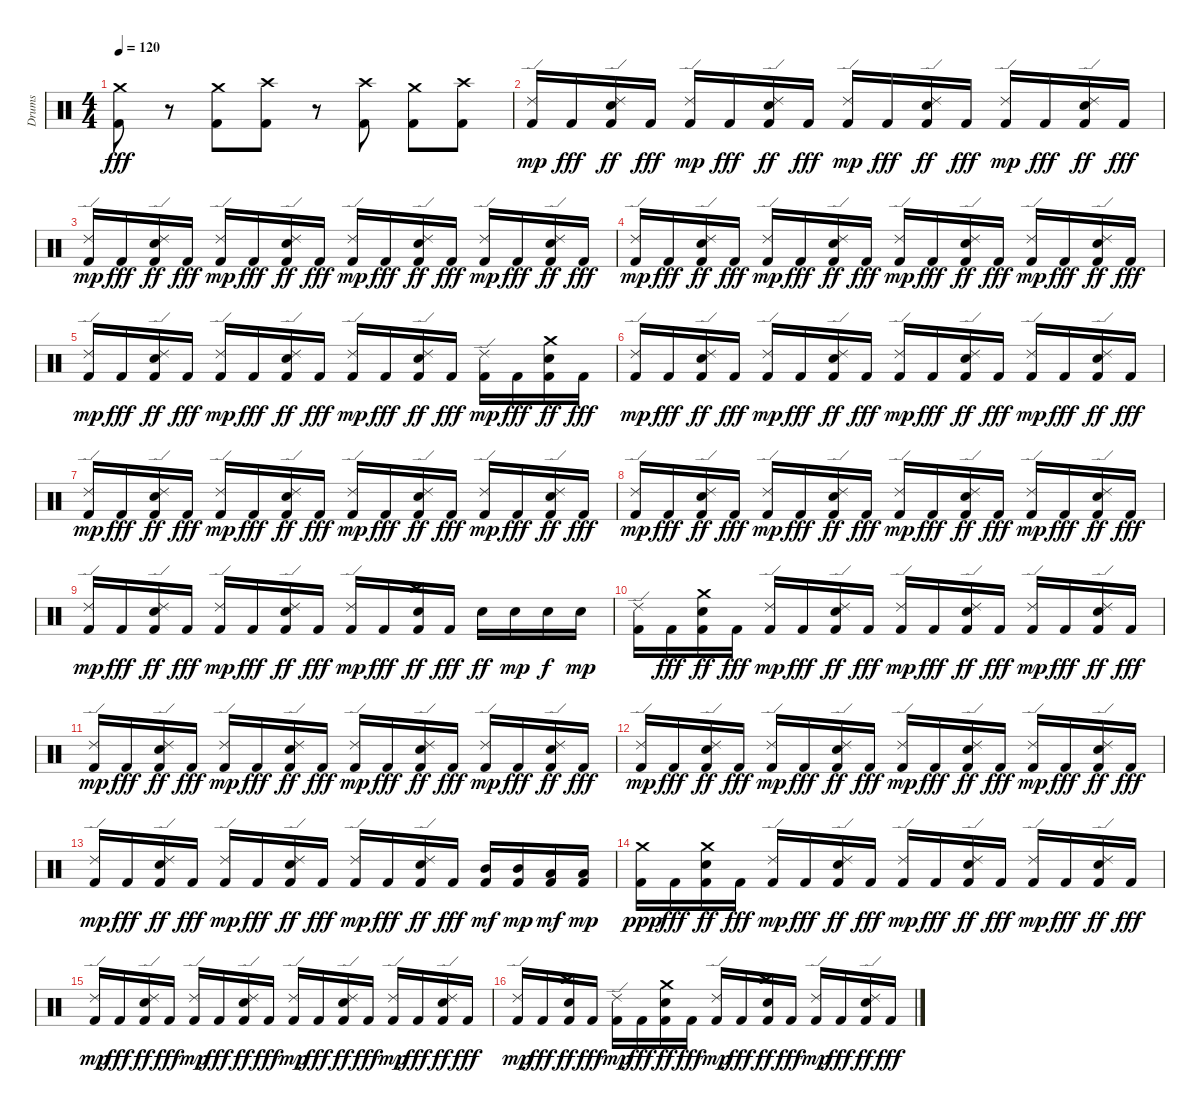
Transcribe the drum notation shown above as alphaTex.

\track ("Drums" "Drums") {instrument percussion}
\staff {score}
\articulation defaults
\ts (4 4)
\tempo 120
\clef neutral
\ks c
("Crash medium (hit)" "Kick (hit) 2").8{dy fff} r.8 ("Crash medium (hit)" "Kick (hit) 2").8 ("Crash high (hit)" "Kick (hit) 2").8 r.8 ("Crash high (hit)" "Kick (hit) 2").8 ("Crash medium (hit)" "Kick (hit) 2").8 ("Crash high (hit)" "Kick (hit) 2").8 |
("Kick (hit) 2" "Ride (edge) 2").16{dy mp} "Kick (hit) 2".16{dy fff} ("Kick (hit) 2" "Ride (edge) 2" "Snare (hit) 2").16{dy ff} "Kick (hit) 2".16{dy fff} ("Kick (hit) 2" "Ride (edge) 2").16{dy mp} "Kick (hit) 2".16{dy fff} ("Kick (hit) 2" "Ride (edge) 2" "Snare (hit) 2").16{dy ff} "Kick (hit) 2".16{dy fff} ("Kick (hit) 2" "Ride (edge) 2").16{dy mp} "Kick (hit) 2".16{dy fff} ("Kick (hit) 2" "Ride (edge) 2" "Snare (hit) 2").16{dy ff} "Kick (hit) 2".16{dy fff} ("Kick (hit) 2" "Ride (edge) 2").16{dy mp} "Kick (hit) 2".16{dy fff} ("Kick (hit) 2" "Ride (edge) 2" "Snare (hit) 2").16{dy ff} "Kick (hit) 2".16{dy fff} |
("Kick (hit) 2" "Ride (edge) 2").16{dy mp} "Kick (hit) 2".16{dy fff} ("Kick (hit) 2" "Ride (edge) 2" "Snare (hit) 2").16{dy ff} "Kick (hit) 2".16{dy fff} ("Kick (hit) 2" "Ride (edge) 2").16{dy mp} "Kick (hit) 2".16{dy fff} ("Kick (hit) 2" "Ride (edge) 2" "Snare (hit) 2").16{dy ff} "Kick (hit) 2".16{dy fff} ("Kick (hit) 2" "Ride (edge) 2").16{dy mp} "Kick (hit) 2".16{dy fff} ("Kick (hit) 2" "Ride (edge) 2" "Snare (hit) 2").16{dy ff} "Kick (hit) 2".16{dy fff} ("Kick (hit) 2" "Ride (edge) 2").16{dy mp} "Kick (hit) 2".16{dy fff} ("Kick (hit) 2" "Ride (edge) 2" "Snare (hit) 2").16{dy ff} "Kick (hit) 2".16{dy fff} |
("Kick (hit) 2" "Ride (edge) 2").16{dy mp} "Kick (hit) 2".16{dy fff} ("Kick (hit) 2" "Ride (edge) 2" "Snare (hit) 2").16{dy ff} "Kick (hit) 2".16{dy fff} ("Kick (hit) 2" "Ride (edge) 2").16{dy mp} "Kick (hit) 2".16{dy fff} ("Kick (hit) 2" "Ride (edge) 2" "Snare (hit) 2").16{dy ff} "Kick (hit) 2".16{dy fff} ("Kick (hit) 2" "Ride (edge) 2").16{dy mp} "Kick (hit) 2".16{dy fff} ("Kick (hit) 2" "Ride (edge) 2" "Snare (hit) 2").16{dy ff} "Kick (hit) 2".16{dy fff} ("Kick (hit) 2" "Ride (edge) 2").16{dy mp} "Kick (hit) 2".16{dy fff} ("Kick (hit) 2" "Ride (edge) 2" "Snare (hit) 2").16{dy ff} "Kick (hit) 2".16{dy fff} |
("Kick (hit) 2" "Ride (edge) 2").16{dy mp} "Kick (hit) 2".16{dy fff} ("Kick (hit) 2" "Ride (edge) 2" "Snare (hit) 2").16{dy ff} "Kick (hit) 2".16{dy fff} ("Kick (hit) 2" "Ride (edge) 2").16{dy mp} "Kick (hit) 2".16{dy fff} ("Kick (hit) 2" "Ride (edge) 2" "Snare (hit) 2").16{dy ff} "Kick (hit) 2".16{dy fff} ("Kick (hit) 2" "Ride (edge) 2").16{dy mp} "Kick (hit) 2".16{dy fff} ("Kick (hit) 2" "Ride (edge) 2" "Snare (hit) 2").16{dy ff} "Kick (hit) 2".16{dy fff} ("Kick (hit) 2" "Ride (edge) 2").16{dy mp} "Kick (hit) 2".16{dy fff} ("Kick (hit) 2" "Crash medium (hit)" "Snare (hit) 2").16{dy ff} "Kick (hit) 2".16{dy fff} |
("Kick (hit) 2" "Ride (edge) 2").16{dy mp} "Kick (hit) 2".16{dy fff} ("Kick (hit) 2" "Ride (edge) 2" "Snare (hit) 2").16{dy ff} "Kick (hit) 2".16{dy fff} ("Kick (hit) 2" "Ride (edge) 2").16{dy mp} "Kick (hit) 2".16{dy fff} ("Kick (hit) 2" "Ride (edge) 2" "Snare (hit) 2").16{dy ff} "Kick (hit) 2".16{dy fff} ("Kick (hit) 2" "Ride (edge) 2").16{dy mp} "Kick (hit) 2".16{dy fff} ("Kick (hit) 2" "Ride (edge) 2" "Snare (hit) 2").16{dy ff} "Kick (hit) 2".16{dy fff} ("Kick (hit) 2" "Ride (edge) 2").16{dy mp} "Kick (hit) 2".16{dy fff} ("Kick (hit) 2" "Ride (edge) 2" "Snare (hit) 2").16{dy ff} "Kick (hit) 2".16{dy fff} |
("Kick (hit) 2" "Ride (edge) 2").16{dy mp} "Kick (hit) 2".16{dy fff} ("Kick (hit) 2" "Ride (edge) 2" "Snare (hit) 2").16{dy ff} "Kick (hit) 2".16{dy fff} ("Kick (hit) 2" "Ride (edge) 2").16{dy mp} "Kick (hit) 2".16{dy fff} ("Kick (hit) 2" "Ride (edge) 2" "Snare (hit) 2").16{dy ff} "Kick (hit) 2".16{dy fff} ("Kick (hit) 2" "Ride (edge) 2").16{dy mp} "Kick (hit) 2".16{dy fff} ("Kick (hit) 2" "Ride (edge) 2" "Snare (hit) 2").16{dy ff} "Kick (hit) 2".16{dy fff} ("Kick (hit) 2" "Ride (edge) 2").16{dy mp} "Kick (hit) 2".16{dy fff} ("Kick (hit) 2" "Ride (edge) 2" "Snare (hit) 2").16{dy ff} "Kick (hit) 2".16{dy fff} |
("Kick (hit) 2" "Ride (edge) 2").16{dy mp} "Kick (hit) 2".16{dy fff} ("Kick (hit) 2" "Ride (edge) 2" "Snare (hit) 2").16{dy ff} "Kick (hit) 2".16{dy fff} ("Kick (hit) 2" "Ride (edge) 2").16{dy mp} "Kick (hit) 2".16{dy fff} ("Kick (hit) 2" "Ride (edge) 2" "Snare (hit) 2").16{dy ff} "Kick (hit) 2".16{dy fff} ("Kick (hit) 2" "Ride (edge) 2").16{dy mp} "Kick (hit) 2".16{dy fff} ("Kick (hit) 2" "Ride (edge) 2" "Snare (hit) 2").16{dy ff} "Kick (hit) 2".16{dy fff} ("Kick (hit) 2" "Ride (edge) 2").16{dy mp} "Kick (hit) 2".16{dy fff} ("Kick (hit) 2" "Ride (edge) 2" "Snare (hit) 2").16{dy ff} "Kick (hit) 2".16{dy fff} |
("Kick (hit) 2" "Ride (edge) 2").16{dy mp} "Kick (hit) 2".16{dy fff} ("Kick (hit) 2" "Ride (edge) 2" "Snare (hit) 2").16{dy ff} "Kick (hit) 2".16{dy fff} ("Kick (hit) 2" "Ride (edge) 2").16{dy mp} "Kick (hit) 2".16{dy fff} ("Kick (hit) 2" "Ride (edge) 2" "Snare (hit) 2").16{dy ff} "Kick (hit) 2".16{dy fff} ("Kick (hit) 2" "Ride (edge) 2").16{dy mp} "Kick (hit) 2".16{dy fff} ("Kick (hit) 2" "Crash high (hit)" "Snare (hit) 2").16{dy ff} "Kick (hit) 2".16{dy fff} "Snare (hit) 2".16{dy ff} "Snare (hit) 2".16{dy mp} "Snare (hit) 2".16{dy f} "Snare (hit) 2".16{dy mp} |
("Kick (hit) 2" "Ride (edge) 2").16 "Kick (hit) 2".16{dy fff} ("Kick (hit) 2" "Crash medium (hit)" "Snare (hit) 2").16{dy ff} "Kick (hit) 2".16{dy fff} ("Kick (hit) 2" "Ride (edge) 2").16{dy mp} "Kick (hit) 2".16{dy fff} ("Kick (hit) 2" "Ride (edge) 2" "Snare (hit) 2").16{dy ff} "Kick (hit) 2".16{dy fff} ("Kick (hit) 2" "Ride (edge) 2").16{dy mp} "Kick (hit) 2".16{dy fff} ("Kick (hit) 2" "Ride (edge) 2" "Snare (hit) 2").16{dy ff} "Kick (hit) 2".16{dy fff} ("Kick (hit) 2" "Ride (edge) 2").16{dy mp} "Kick (hit) 2".16{dy fff} ("Kick (hit) 2" "Ride (edge) 2" "Snare (hit) 2").16{dy ff} "Kick (hit) 2".16{dy fff} |
("Kick (hit) 2" "Ride (edge) 2").16{dy mp} "Kick (hit) 2".16{dy fff} ("Kick (hit) 2" "Ride (edge) 2" "Snare (hit) 2").16{dy ff} "Kick (hit) 2".16{dy fff} ("Kick (hit) 2" "Ride (edge) 2").16{dy mp} "Kick (hit) 2".16{dy fff} ("Kick (hit) 2" "Ride (edge) 2" "Snare (hit) 2").16{dy ff} "Kick (hit) 2".16{dy fff} ("Kick (hit) 2" "Ride (edge) 2").16{dy mp} "Kick (hit) 2".16{dy fff} ("Kick (hit) 2" "Ride (edge) 2" "Snare (hit) 2").16{dy ff} "Kick (hit) 2".16{dy fff} ("Kick (hit) 2" "Ride (edge) 2").16{dy mp} "Kick (hit) 2".16{dy fff} ("Kick (hit) 2" "Ride (edge) 2" "Snare (hit) 2").16{dy ff} "Kick (hit) 2".16{dy fff} |
("Kick (hit) 2" "Ride (edge) 2").16{dy mp} "Kick (hit) 2".16{dy fff} ("Kick (hit) 2" "Ride (edge) 2" "Snare (hit) 2").16{dy ff} "Kick (hit) 2".16{dy fff} ("Kick (hit) 2" "Ride (edge) 2").16{dy mp} "Kick (hit) 2".16{dy fff} ("Kick (hit) 2" "Ride (edge) 2" "Snare (hit) 2").16{dy ff} "Kick (hit) 2".16{dy fff} ("Kick (hit) 2" "Ride (edge) 2").16{dy mp} "Kick (hit) 2".16{dy fff} ("Kick (hit) 2" "Ride (edge) 2" "Snare (hit) 2").16{dy ff} "Kick (hit) 2".16{dy fff} ("Kick (hit) 2" "Ride (edge) 2").16{dy mp} "Kick (hit) 2".16{dy fff} ("Kick (hit) 2" "Ride (edge) 2" "Snare (hit) 2").16{dy ff} "Kick (hit) 2".16{dy fff} |
("Kick (hit) 2" "Ride (edge) 2").16{dy mp} "Kick (hit) 2".16{dy fff} ("Kick (hit) 2" "Ride (edge) 2" "Snare (hit) 2").16{dy ff} "Kick (hit) 2".16{dy fff} ("Kick (hit) 2" "Ride (edge) 2").16{dy mp} "Kick (hit) 2".16{dy fff} ("Kick (hit) 2" "Ride (edge) 2" "Snare (hit) 2").16{dy ff} "Kick (hit) 2".16{dy fff} ("Kick (hit) 2" "Ride (edge) 2").16{dy mp} "Kick (hit) 2".16{dy fff} ("Kick (hit) 2" "Ride (edge) 2" "Snare (hit) 2").16{dy ff} "Kick (hit) 2".16{dy fff} ("Kick (hit) 2" "Mid Tom (hit)").16{dy mf} ("Kick (hit) 2" "Mid Tom (hit)").16{dy mp} ("Kick (hit) 2" "Low Tom (hit)").16{dy mf} ("Kick (hit) 2" "Low Tom (hit)").16{dy mp} |
("Kick (hit) 2" "Crash medium (hit)").16{dy ppp} "Kick (hit) 2".16{dy fff} ("Kick (hit) 2" "Crash medium (hit)" "Snare (hit) 2").16{dy ff} "Kick (hit) 2".16{dy fff} ("Kick (hit) 2" "Ride (edge) 2").16{dy mp} "Kick (hit) 2".16{dy fff} ("Kick (hit) 2" "Ride (edge) 2" "Snare (hit) 2").16{dy ff} "Kick (hit) 2".16{dy fff} ("Kick (hit) 2" "Ride (edge) 2").16{dy mp} "Kick (hit) 2".16{dy fff} ("Kick (hit) 2" "Ride (edge) 2" "Snare (hit) 2").16{dy ff} "Kick (hit) 2".16{dy fff} ("Kick (hit) 2" "Ride (edge) 2").16{dy mp} "Kick (hit) 2".16{dy fff} ("Kick (hit) 2" "Ride (edge) 2" "Snare (hit) 2").16{dy ff} "Kick (hit) 2".16{dy fff} |
("Kick (hit) 2" "Ride (edge) 2").16{dy mp} "Kick (hit) 2".16{dy fff} ("Kick (hit) 2" "Ride (edge) 2" "Snare (hit) 2").16{dy ff} "Kick (hit) 2".16{dy fff} ("Kick (hit) 2" "Ride (edge) 2").16{dy mp} "Kick (hit) 2".16{dy fff} ("Kick (hit) 2" "Ride (edge) 2" "Snare (hit) 2").16{dy ff} "Kick (hit) 2".16{dy fff} ("Kick (hit) 2" "Ride (edge) 2").16{dy mp} "Kick (hit) 2".16{dy fff} ("Kick (hit) 2" "Ride (edge) 2" "Snare (hit) 2").16{dy ff} "Kick (hit) 2".16{dy fff} ("Kick (hit) 2" "Ride (edge) 2").16{dy mp} "Kick (hit) 2".16{dy fff} ("Kick (hit) 2" "Ride (edge) 2" "Snare (hit) 2").16{dy ff} "Kick (hit) 2".16{dy fff} |
("Kick (hit) 2" "Ride (edge) 2").16{dy mp} "Kick (hit) 2".16{dy fff} ("Kick (hit) 2" "Crash high (hit)" "Snare (hit) 2").16{dy ff} "Kick (hit) 2".16{dy fff} ("Kick (hit) 2" "Ride (edge) 2").16{dy mp} "Kick (hit) 2".16{dy fff} ("Kick (hit) 2" "Crash medium (hit)" "Snare (hit) 2").16{dy ff} "Kick (hit) 2".16{dy fff} ("Kick (hit) 2" "Ride (edge) 2").16{dy mp} "Kick (hit) 2".16{dy fff} ("Kick (hit) 2" "Crash high (hit)" "Snare (hit) 2").16{dy ff} "Kick (hit) 2".16{dy fff} ("Kick (hit) 2" "Ride (edge) 2").16{dy mp} "Kick (hit) 2".16{dy fff} ("Kick (hit) 2" "Ride (edge) 2" "Snare (hit) 2").16{dy ff} "Kick (hit) 2".16{dy fff}
